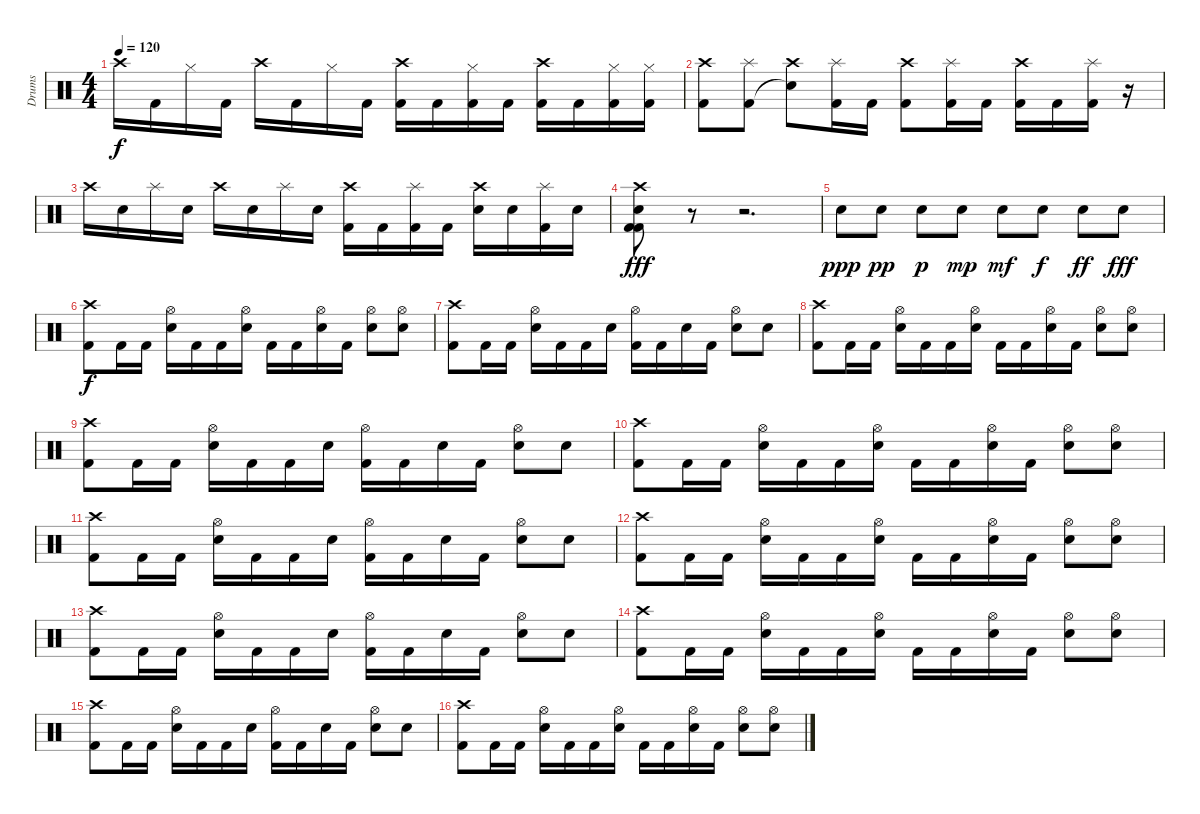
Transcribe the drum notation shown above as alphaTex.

\track ("Drums" "Drums") {instrument percussion}
\staff {score}
\articulation defaults
\ts (4 4)
\tempo 120
\clef neutral
\ks c "Crash high (hit)".16{dy f} "Kick (hit) 2".16 "Hi-Hat (closed)".16 "Kick (hit) 2".16 "Crash high (hit)".16 "Kick (hit) 2".16 "Hi-Hat (closed)".16 "Kick (hit) 2".16
("Crash high (hit)" "Kick (hit) 2").16 "Kick (hit) 2".16 ("Hi-Hat (closed)" "Kick (hit) 2").16 "Kick (hit) 2".16 ("Crash high (hit)" "Kick (hit) 2").16 "Kick (hit) 2".16 ("Hi-Hat (closed)" "Kick (hit) 2").16 ("Hi-Hat (closed)" "Kick (hit) 2").16 |
("Crash high (hit)" "Kick (hit) 2").8 ("Splash (hit)" "Kick (hit) 2").8 ("Crash high (hit)" "Snare (hit)"{t}).8 ("Splash (hit)" "Kick (hit) 2").16 "Kick (hit) 2".16 ("Crash high (hit)" "Kick (hit) 2").8 ("Splash (hit)" "Kick (hit) 2").16 "Kick (hit) 2".16 ("Crash high (hit)" "Kick (hit) 2").16 "Kick (hit) 2".16 ("Splash (hit)" "Kick (hit) 2").16 r.16 |
"Crash high (hit)".16 "Electric Snare (hit)".16 "Splash (hit)".16 "Electric Snare (hit)".16 "Crash high (hit)".16 "Electric Snare (hit)".16 "Splash (hit)".16 "Electric Snare (hit)".16 ("Crash high (hit)" "Kick (hit) 2").16 "Kick (hit) 2".16 ("Splash (hit)" "Kick (hit) 2").16 "Kick (hit) 2".16 ("Crash high (hit)" "Electric Snare (hit)").16 "Electric Snare (hit)".16 ("Splash (hit)" "Kick (hit) 2").16 "Electric Snare (hit)".16 |
("Crash high (hit)" "Kick (hit) 2" "Kick (hit) 2" "Electric Snare (hit)").8{dy fff} r.8 r.2{d} |
"Electric Snare (hit)".8{dy ppp} "Electric Snare (hit)".8{dy pp} "Electric Snare (hit)".8{dy p} "Electric Snare (hit)".8{dy mp} "Electric Snare (hit)".8{dy mf} "Electric Snare (hit)".8{dy f} "Electric Snare (hit)".8{dy ff} "Electric Snare (hit)".8{dy fff} |
("Crash high (hit)" "Kick (hit) 2").8{dy f} "Kick (hit) 2".16 "Kick (hit) 2".16 ("Hi-Hat (open)" "Electric Snare (hit)").16 "Kick (hit) 2".16 "Kick (hit) 2".16 ("Hi-Hat (open)" "Electric Snare (hit)").16 "Kick (hit) 2".16 "Kick (hit) 2".16 ("Hi-Hat (open)" "Electric Snare (hit)").16 "Kick (hit) 2".16 ("Hi-Hat (open)" "Electric Snare (hit)").8 ("Hi-Hat (open)" "Electric Snare (hit)").8 |
("Crash high (hit)" "Kick (hit) 2").8 "Kick (hit) 2".16 "Kick (hit) 2".16 ("Hi-Hat (open)" "Electric Snare (hit)").16 "Kick (hit) 2".16 "Kick (hit) 2".16 "Electric Snare (hit)".16 ("Hi-Hat (open)" "Kick (hit) 2").16 "Kick (hit) 2".16 "Electric Snare (hit)".16 "Kick (hit) 2".16 ("Hi-Hat (open)" "Electric Snare (hit)").8 "Electric Snare (hit)".8 |
("Crash high (hit)" "Kick (hit) 2").8 "Kick (hit) 2".16 "Kick (hit) 2".16 ("Hi-Hat (open)" "Electric Snare (hit)").16 "Kick (hit) 2".16 "Kick (hit) 2".16 ("Hi-Hat (open)" "Electric Snare (hit)").16 "Kick (hit) 2".16 "Kick (hit) 2".16 ("Hi-Hat (open)" "Electric Snare (hit)").16 "Kick (hit) 2".16 ("Hi-Hat (open)" "Electric Snare (hit)").8 ("Hi-Hat (open)" "Electric Snare (hit)").8 |
("Crash high (hit)" "Kick (hit) 2").8 "Kick (hit) 2".16 "Kick (hit) 2".16 ("Hi-Hat (open)" "Electric Snare (hit)").16 "Kick (hit) 2".16 "Kick (hit) 2".16 "Electric Snare (hit)".16 ("Hi-Hat (open)" "Kick (hit) 2").16 "Kick (hit) 2".16 "Electric Snare (hit)".16 "Kick (hit) 2".16 ("Hi-Hat (open)" "Electric Snare (hit)").8 "Electric Snare (hit)".8 |
("Crash high (hit)" "Kick (hit) 2").8 "Kick (hit) 2".16 "Kick (hit) 2".16 ("Hi-Hat (open)" "Electric Snare (hit)").16 "Kick (hit) 2".16 "Kick (hit) 2".16 ("Hi-Hat (open)" "Electric Snare (hit)").16 "Kick (hit) 2".16 "Kick (hit) 2".16 ("Hi-Hat (open)" "Electric Snare (hit)").16 "Kick (hit) 2".16 ("Hi-Hat (open)" "Electric Snare (hit)").8 ("Hi-Hat (open)" "Electric Snare (hit)").8 |
("Crash high (hit)" "Kick (hit) 2").8 "Kick (hit) 2".16 "Kick (hit) 2".16 ("Hi-Hat (open)" "Electric Snare (hit)").16 "Kick (hit) 2".16 "Kick (hit) 2".16 "Electric Snare (hit)".16 ("Hi-Hat (open)" "Kick (hit) 2").16 "Kick (hit) 2".16 "Electric Snare (hit)".16 "Kick (hit) 2".16 ("Hi-Hat (open)" "Electric Snare (hit)").8 "Electric Snare (hit)".8 |
("Crash high (hit)" "Kick (hit) 2").8 "Kick (hit) 2".16 "Kick (hit) 2".16 ("Hi-Hat (open)" "Electric Snare (hit)").16 "Kick (hit) 2".16 "Kick (hit) 2".16 ("Hi-Hat (open)" "Electric Snare (hit)").16 "Kick (hit) 2".16 "Kick (hit) 2".16 ("Hi-Hat (open)" "Electric Snare (hit)").16 "Kick (hit) 2".16 ("Hi-Hat (open)" "Electric Snare (hit)").8 ("Hi-Hat (open)" "Electric Snare (hit)").8 |
("Crash high (hit)" "Kick (hit) 2").8 "Kick (hit) 2".16 "Kick (hit) 2".16 ("Hi-Hat (open)" "Electric Snare (hit)").16 "Kick (hit) 2".16 "Kick (hit) 2".16 "Electric Snare (hit)".16 ("Hi-Hat (open)" "Kick (hit) 2").16 "Kick (hit) 2".16 "Electric Snare (hit)".16 "Kick (hit) 2".16 ("Hi-Hat (open)" "Electric Snare (hit)").8 "Electric Snare (hit)".8 |
("Crash high (hit)" "Kick (hit) 2").8 "Kick (hit) 2".16 "Kick (hit) 2".16 ("Hi-Hat (open)" "Electric Snare (hit)").16 "Kick (hit) 2".16 "Kick (hit) 2".16 ("Hi-Hat (open)" "Electric Snare (hit)").16 "Kick (hit) 2".16 "Kick (hit) 2".16 ("Hi-Hat (open)" "Electric Snare (hit)").16 "Kick (hit) 2".16 ("Hi-Hat (open)" "Electric Snare (hit)").8 ("Hi-Hat (open)" "Electric Snare (hit)").8 |
("Crash high (hit)" "Kick (hit) 2").8 "Kick (hit) 2".16 "Kick (hit) 2".16 ("Hi-Hat (open)" "Electric Snare (hit)").16 "Kick (hit) 2".16 "Kick (hit) 2".16 "Electric Snare (hit)".16 ("Hi-Hat (open)" "Kick (hit) 2").16 "Kick (hit) 2".16 "Electric Snare (hit)".16 "Kick (hit) 2".16 ("Hi-Hat (open)" "Electric Snare (hit)").8 "Electric Snare (hit)".8 |
("Crash high (hit)" "Kick (hit) 2").8 "Kick (hit) 2".16 "Kick (hit) 2".16 ("Hi-Hat (open)" "Electric Snare (hit)").16 "Kick (hit) 2".16 "Kick (hit) 2".16 ("Hi-Hat (open)" "Electric Snare (hit)").16 "Kick (hit) 2".16 "Kick (hit) 2".16 ("Hi-Hat (open)" "Electric Snare (hit)").16 "Kick (hit) 2".16 ("Hi-Hat (open)" "Electric Snare (hit)").8 ("Hi-Hat (open)" "Electric Snare (hit)").8
